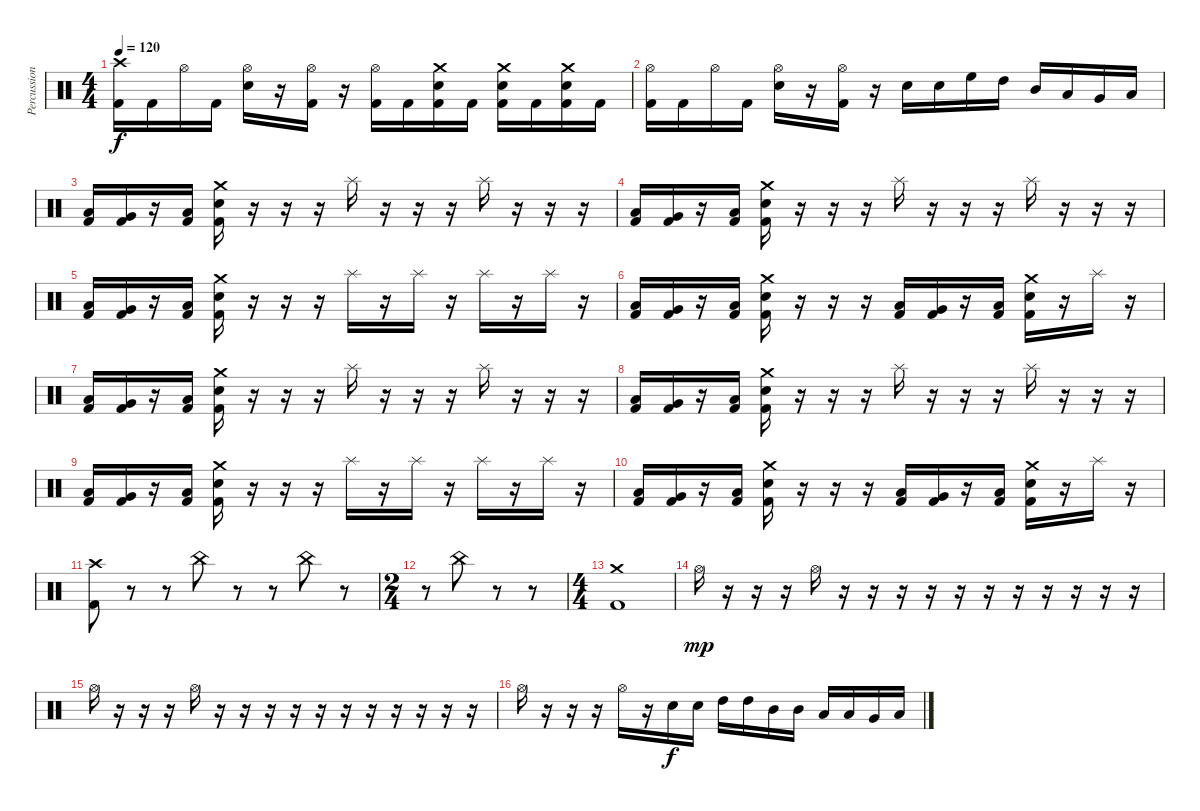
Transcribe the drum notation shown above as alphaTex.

\track ("Percussion" "Percussion") {instrument percussion}
\staff {score}
\articulation defaults
\ts (4 4)
\tempo 120
\clef neutral
\ks c
("Crash high (hit)" "Kick (hit) 2").16{dy f} "Kick (hit) 2".16 "Hi-Hat (open)".16 "Kick (hit) 2".16 ("Hi-Hat (open)" "Snare (hit) 2").16 r.16 ("Hi-Hat (open)" "Kick (hit) 2").16 r.16 ("Hi-Hat (open)" "Kick (hit) 2").16 "Kick (hit) 2".16 ("Crash medium (hit)" "Snare (hit) 2" "Kick (hit) 2").16 "Kick (hit) 2".16 ("Crash medium (hit)" "Snare (hit) 2" "Kick (hit) 2").16 "Kick (hit) 2".16 ("Crash medium (hit)" "Snare (hit) 2" "Kick (hit) 2").16 "Kick (hit) 2".16 |
("Hi-Hat (open)" "Kick (hit) 2").16 "Kick (hit) 2".16 "Hi-Hat (open)".16 "Kick (hit) 2".16 ("Hi-Hat (open)" "Snare (hit) 2").16 r.16 ("Hi-Hat (open)" "Kick (hit) 2").16 r.16 "Snare (hit) 2".16 "Snare (hit) 2".16 "High Floor Tom (hit)".16 "High Tom (hit)".16 "Mid Tom (hit)".16 "Low Tom (hit)".16 "Very Low Tom (hit)".16 "Low Floor Tom (hit)".16 |
("Low Tom (hit)" "Kick (hit) 2").16 ("Very Low Tom (hit)" "Kick (hit) 2").16 r.16 ("Low Floor Tom (hit)" "Kick (hit) 2").16 ("Crash medium (hit)" "Snare (hit) 2" "Kick (hit) 2").16 r.16 r.16 r.16 "Splash (hit)".16 r.16 r.16 r.16 "Splash (hit)".16 r.16 r.16 r.16 |
("Low Tom (hit)" "Kick (hit) 2").16 ("Very Low Tom (hit)" "Kick (hit) 2").16 r.16 ("Low Floor Tom (hit)" "Kick (hit) 2").16 ("Crash medium (hit)" "Snare (hit) 2" "Kick (hit) 2").16 r.16 r.16 r.16 "Splash (hit)".16 r.16 r.16 r.16 "Splash (hit)".16 r.16 r.16 r.16 |
("Low Tom (hit)" "Kick (hit) 2").16 ("Very Low Tom (hit)" "Kick (hit) 2").16 r.16 ("Low Floor Tom (hit)" "Kick (hit) 2").16 ("Crash medium (hit)" "Snare (hit) 2" "Kick (hit) 2").16 r.16 r.16 r.16 "Splash (hit)".16 r.16 "Splash (hit)".16 r.16 "Splash (hit)".16 r.16 "Splash (hit)".16 r.16 |
("Low Tom (hit)" "Kick (hit) 2").16 ("Very Low Tom (hit)" "Kick (hit) 2").16 r.16 ("Low Floor Tom (hit)" "Kick (hit) 2").16 ("Crash medium (hit)" "Snare (hit) 2" "Kick (hit) 2").16 r.16 r.16 r.16 ("Low Tom (hit)" "Kick (hit) 2").16 ("Very Low Tom (hit)" "Kick (hit) 2").16 r.16 ("Low Floor Tom (hit)" "Kick (hit) 2").16 ("Crash medium (hit)" "Snare (hit) 2" "Kick (hit) 2").16 r.16 "Splash (hit)".16 r.16 |
("Low Tom (hit)" "Kick (hit) 2").16 ("Very Low Tom (hit)" "Kick (hit) 2").16 r.16 ("Low Floor Tom (hit)" "Kick (hit) 2").16 ("Crash medium (hit)" "Snare (hit) 2" "Kick (hit) 2").16 r.16 r.16 r.16 "Splash (hit)".16 r.16 r.16 r.16 "Splash (hit)".16 r.16 r.16 r.16 |
("Low Tom (hit)" "Kick (hit) 2").16 ("Very Low Tom (hit)" "Kick (hit) 2").16 r.16 ("Low Floor Tom (hit)" "Kick (hit) 2").16 ("Crash medium (hit)" "Snare (hit) 2" "Kick (hit) 2").16 r.16 r.16 r.16 "Splash (hit)".16 r.16 r.16 r.16 "Splash (hit)".16 r.16 r.16 r.16 |
("Low Tom (hit)" "Kick (hit) 2").16 ("Very Low Tom (hit)" "Kick (hit) 2").16 r.16 ("Low Floor Tom (hit)" "Kick (hit) 2").16 ("Crash medium (hit)" "Snare (hit) 2" "Kick (hit) 2").16 r.16 r.16 r.16 "Splash (hit)".16 r.16 "Splash (hit)".16 r.16 "Splash (hit)".16 r.16 "Splash (hit)".16 r.16 |
("Low Tom (hit)" "Kick (hit) 2").16 ("Very Low Tom (hit)" "Kick (hit) 2").16 r.16 ("Low Floor Tom (hit)" "Kick (hit) 2").16 ("Crash medium (hit)" "Snare (hit) 2" "Kick (hit) 2").16 r.16 r.16 r.16 ("Low Tom (hit)" "Kick (hit) 2").16 ("Very Low Tom (hit)" "Kick (hit) 2").16 r.16 ("Low Floor Tom (hit)" "Kick (hit) 2").16 ("Crash medium (hit)" "Snare (hit) 2" "Kick (hit) 2").16 r.16 "Splash (hit)".16 r.16 |
("Crash high (hit)" "Kick (hit) 2").8 r.8 r.8 "China (hit)".8 r.8 r.8 "China (hit)".8 r.8 |
\ts (2 4)
r.8 "China (hit)".8 r.8 r.8 |
\ts (4 4)
("Crash medium (hit)" "Kick (hit) 2").1 |
"Hi-Hat (open)".16{dy mp} r.16 r.16 r.16 "Hi-Hat (open)".16 r.16 r.16 r.16 r.16 r.16 r.16 r.16 r.16 r.16 r.16 r.16 |
"Hi-Hat (open)".16 r.16 r.16 r.16 "Hi-Hat (open)".16 r.16 r.16 r.16 r.16 r.16 r.16 r.16 r.16 r.16 r.16 r.16 |
"Hi-Hat (open)".16 r.16 r.16 r.16 "Hi-Hat (open)".16 r.16 "Snare (hit) 2".16{dy f} "Snare (hit) 2".16 "High Tom (hit)".16 "High Tom (hit)".16 "Mid Tom (hit)".16 "Mid Tom (hit)".16 "Low Tom (hit)".16 "Low Tom (hit)".16 "Very Low Tom (hit)".16 "Low Floor Tom (hit)".16
